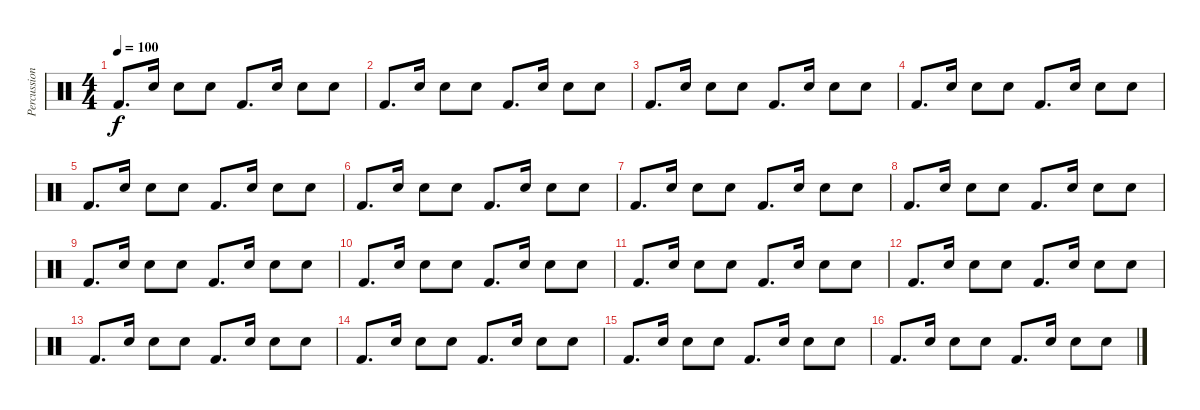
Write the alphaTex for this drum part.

\track ("Percussion" "Percussion") {instrument percussion}
\staff
\articulation defaults
\ts (4 4)
\tempo 100
\clef neutral
\ks c "Kick (hit) 2".8{d dy f} "Hand Clap (hit)".16 "Hand Clap (hit)".8 "Hand Clap (hit)".8 "Kick (hit) 2".8{d} "Hand Clap (hit)".16 "Hand Clap (hit)".8 "Hand Clap (hit)".8
|
"Kick (hit) 2".8{d} "Hand Clap (hit)".16 "Hand Clap (hit)".8 "Hand Clap (hit)".8 "Kick (hit) 2".8{d} "Hand Clap (hit)".16 "Hand Clap (hit)".8 "Hand Clap (hit)".8 |
"Kick (hit) 2".8{d} "Hand Clap (hit)".16 "Hand Clap (hit)".8 "Hand Clap (hit)".8 "Kick (hit) 2".8{d} "Hand Clap (hit)".16 "Hand Clap (hit)".8 "Hand Clap (hit)".8 |
"Kick (hit) 2".8{d} "Hand Clap (hit)".16 "Hand Clap (hit)".8 "Hand Clap (hit)".8 "Kick (hit) 2".8{d} "Hand Clap (hit)".16 "Hand Clap (hit)".8 "Hand Clap (hit)".8 |
"Kick (hit) 2".8{d} "Hand Clap (hit)".16 "Hand Clap (hit)".8 "Hand Clap (hit)".8 "Kick (hit) 2".8{d} "Hand Clap (hit)".16 "Hand Clap (hit)".8 "Hand Clap (hit)".8 |
"Kick (hit) 2".8{d} "Hand Clap (hit)".16 "Hand Clap (hit)".8 "Hand Clap (hit)".8 "Kick (hit) 2".8{d} "Hand Clap (hit)".16 "Hand Clap (hit)".8 "Hand Clap (hit)".8 |
"Kick (hit) 2".8{d} "Hand Clap (hit)".16 "Hand Clap (hit)".8 "Hand Clap (hit)".8 "Kick (hit) 2".8{d} "Hand Clap (hit)".16 "Hand Clap (hit)".8 "Hand Clap (hit)".8 |
"Kick (hit) 2".8{d} "Hand Clap (hit)".16 "Hand Clap (hit)".8 "Hand Clap (hit)".8 "Kick (hit) 2".8{d} "Hand Clap (hit)".16 "Hand Clap (hit)".8 "Hand Clap (hit)".8 |
"Kick (hit) 2".8{d} "Hand Clap (hit)".16 "Hand Clap (hit)".8 "Hand Clap (hit)".8 "Kick (hit) 2".8{d} "Hand Clap (hit)".16 "Hand Clap (hit)".8 "Hand Clap (hit)".8 |
"Kick (hit) 2".8{d} "Hand Clap (hit)".16 "Hand Clap (hit)".8 "Hand Clap (hit)".8 "Kick (hit) 2".8{d} "Hand Clap (hit)".16 "Hand Clap (hit)".8 "Hand Clap (hit)".8 |
"Kick (hit) 2".8{d} "Hand Clap (hit)".16 "Hand Clap (hit)".8 "Hand Clap (hit)".8 "Kick (hit) 2".8{d} "Hand Clap (hit)".16 "Hand Clap (hit)".8 "Hand Clap (hit)".8 |
"Kick (hit) 2".8{d} "Hand Clap (hit)".16 "Hand Clap (hit)".8 "Hand Clap (hit)".8 "Kick (hit) 2".8{d} "Hand Clap (hit)".16 "Hand Clap (hit)".8 "Hand Clap (hit)".8 |
"Kick (hit) 2".8{d} "Hand Clap (hit)".16 "Hand Clap (hit)".8 "Hand Clap (hit)".8 "Kick (hit) 2".8{d} "Hand Clap (hit)".16 "Hand Clap (hit)".8 "Hand Clap (hit)".8 |
"Kick (hit) 2".8{d} "Hand Clap (hit)".16 "Hand Clap (hit)".8 "Hand Clap (hit)".8 "Kick (hit) 2".8{d} "Hand Clap (hit)".16 "Hand Clap (hit)".8 "Hand Clap (hit)".8 |
"Kick (hit) 2".8{d} "Hand Clap (hit)".16 "Hand Clap (hit)".8 "Hand Clap (hit)".8 "Kick (hit) 2".8{d} "Hand Clap (hit)".16 "Hand Clap (hit)".8 "Hand Clap (hit)".8 |
"Kick (hit) 2".8{d} "Hand Clap (hit)".16 "Hand Clap (hit)".8 "Hand Clap (hit)".8 "Kick (hit) 2".8{d} "Hand Clap (hit)".16 "Hand Clap (hit)".8 "Hand Clap (hit)".8
